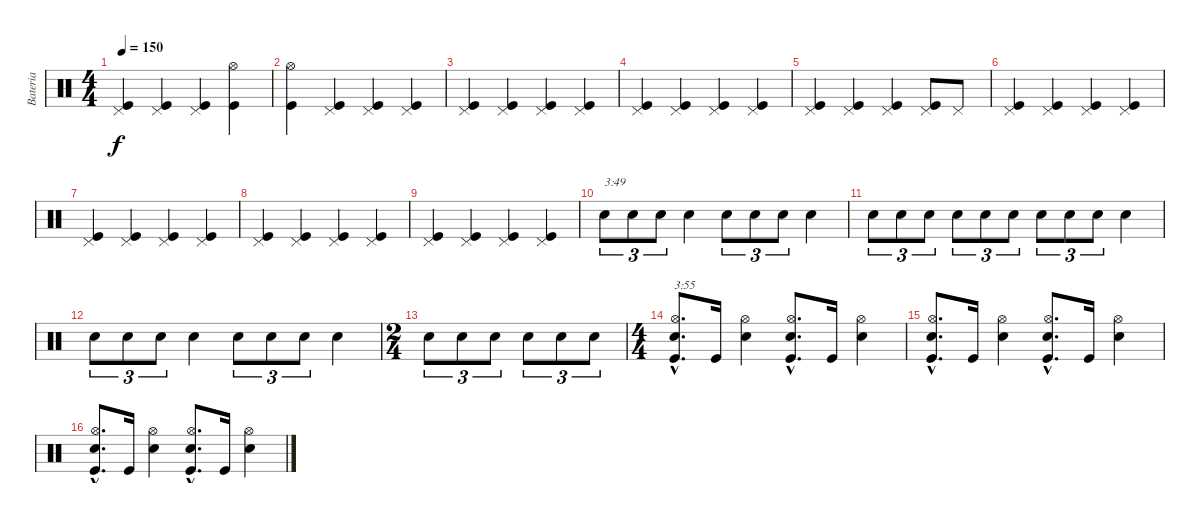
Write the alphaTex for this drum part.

\track ("Bateria" "Bateria") {instrument percussion}
\staff {score}
\articulation defaults
\ts (4 4)
\tempo 150
\clef neutral
\ks c
("Kick (hit)" "Pedal Hi-Hat (hit)").4{dy f} ("Kick (hit)" "Pedal Hi-Hat (hit)").4 ("Kick (hit)" "Pedal Hi-Hat (hit)").4 ("Kick (hit)" "Hi-Hat (open)").4 |
("Kick (hit)" "Hi-Hat (open)").4 ("Kick (hit)" "Pedal Hi-Hat (hit)").4 ("Kick (hit)" "Pedal Hi-Hat (hit)").4 ("Kick (hit)" "Pedal Hi-Hat (hit)").4 |
("Kick (hit)" "Pedal Hi-Hat (hit)").4 ("Kick (hit)" "Pedal Hi-Hat (hit)").4 ("Kick (hit)" "Pedal Hi-Hat (hit)").4 ("Kick (hit)" "Pedal Hi-Hat (hit)").4 |
("Kick (hit)" "Pedal Hi-Hat (hit)").4 ("Kick (hit)" "Pedal Hi-Hat (hit)").4 ("Kick (hit)" "Pedal Hi-Hat (hit)").4 ("Kick (hit)" "Pedal Hi-Hat (hit)").4 |
("Kick (hit)" "Pedal Hi-Hat (hit)").4 ("Kick (hit)" "Pedal Hi-Hat (hit)").4 ("Kick (hit)" "Pedal Hi-Hat (hit)").4 ("Kick (hit)" "Pedal Hi-Hat (hit)").8 "Pedal Hi-Hat (hit)".8 |
("Kick (hit)" "Pedal Hi-Hat (hit)").4 ("Kick (hit)" "Pedal Hi-Hat (hit)").4 ("Kick (hit)" "Pedal Hi-Hat (hit)").4 ("Kick (hit)" "Pedal Hi-Hat (hit)").4 |
("Kick (hit)" "Pedal Hi-Hat (hit)").4 ("Kick (hit)" "Pedal Hi-Hat (hit)").4 ("Kick (hit)" "Pedal Hi-Hat (hit)").4 ("Kick (hit)" "Pedal Hi-Hat (hit)").4 |
("Kick (hit)" "Pedal Hi-Hat (hit)").4 ("Kick (hit)" "Pedal Hi-Hat (hit)").4 ("Kick (hit)" "Pedal Hi-Hat (hit)").4 ("Kick (hit)" "Pedal Hi-Hat (hit)").4 |
("Kick (hit)" "Pedal Hi-Hat (hit)").4 ("Kick (hit)" "Pedal Hi-Hat (hit)").4 ("Kick (hit)" "Pedal Hi-Hat (hit)").4 ("Kick (hit)" "Pedal Hi-Hat (hit)").4 |
"Snare (hit) 2".8{tu (3 2) txt "3:49"} "Snare (hit) 2".8{tu (3 2)} "Snare (hit) 2".8{tu (3 2)} "Snare (hit) 2".4 "Snare (hit) 2".8{tu (3 2)} "Snare (hit) 2".8{tu (3 2)} "Snare (hit) 2".8{tu (3 2)} "Snare (hit) 2".4 |
"Snare (hit) 2".8{tu (3 2)} "Snare (hit) 2".8{tu (3 2)} "Snare (hit) 2".8{tu (3 2)} "Snare (hit) 2".8{tu (3 2)} "Snare (hit) 2".8{tu (3 2)} "Snare (hit) 2".8{tu (3 2)} "Snare (hit) 2".8{tu (3 2)} "Snare (hit) 2".8{tu (3 2)} "Snare (hit) 2".8{tu (3 2)} "Snare (hit) 2".4 |
"Snare (hit) 2".8{tu (3 2)} "Snare (hit) 2".8{tu (3 2)} "Snare (hit) 2".8{tu (3 2)} "Snare (hit) 2".4 "Snare (hit) 2".8{tu (3 2)} "Snare (hit) 2".8{tu (3 2)} "Snare (hit) 2".8{tu (3 2)} "Snare (hit) 2".4 |
\ts (2 4)
"Snare (hit) 2".8{tu (3 2)} "Snare (hit) 2".8{tu (3 2)} "Snare (hit) 2".8{tu (3 2)} "Snare (hit) 2".8{tu (3 2)} "Snare (hit) 2".8{tu (3 2)} "Snare (hit) 2".8{tu (3 2)} |
\ts (4 4)
("Kick (hit)"{hac} "Snare (hit) 2"{hac} "Hi-Hat (open)"{hac}).8{d txt "3:55"} "Kick (hit)".16 ("Snare (hit) 2" "Hi-Hat (open)").4 ("Kick (hit)"{hac} "Snare (hit) 2"{hac} "Hi-Hat (open)"{hac}).8{d} "Kick (hit)".16 ("Snare (hit) 2" "Hi-Hat (open)").4 |
("Kick (hit)"{hac} "Snare (hit) 2"{hac} "Hi-Hat (open)"{hac}).8{d} "Kick (hit)".16 ("Snare (hit) 2" "Hi-Hat (open)").4 ("Kick (hit)"{hac} "Snare (hit) 2"{hac} "Hi-Hat (open)"{hac}).8{d} "Kick (hit)".16 ("Snare (hit) 2" "Hi-Hat (open)").4 |
("Kick (hit)"{hac} "Snare (hit) 2"{hac} "Hi-Hat (open)"{hac}).8{d} "Kick (hit)".16 ("Snare (hit) 2" "Hi-Hat (open)").4 ("Kick (hit)"{hac} "Snare (hit) 2"{hac} "Hi-Hat (open)"{hac}).8{d} "Kick (hit)".16 ("Snare (hit) 2" "Hi-Hat (open)").4
